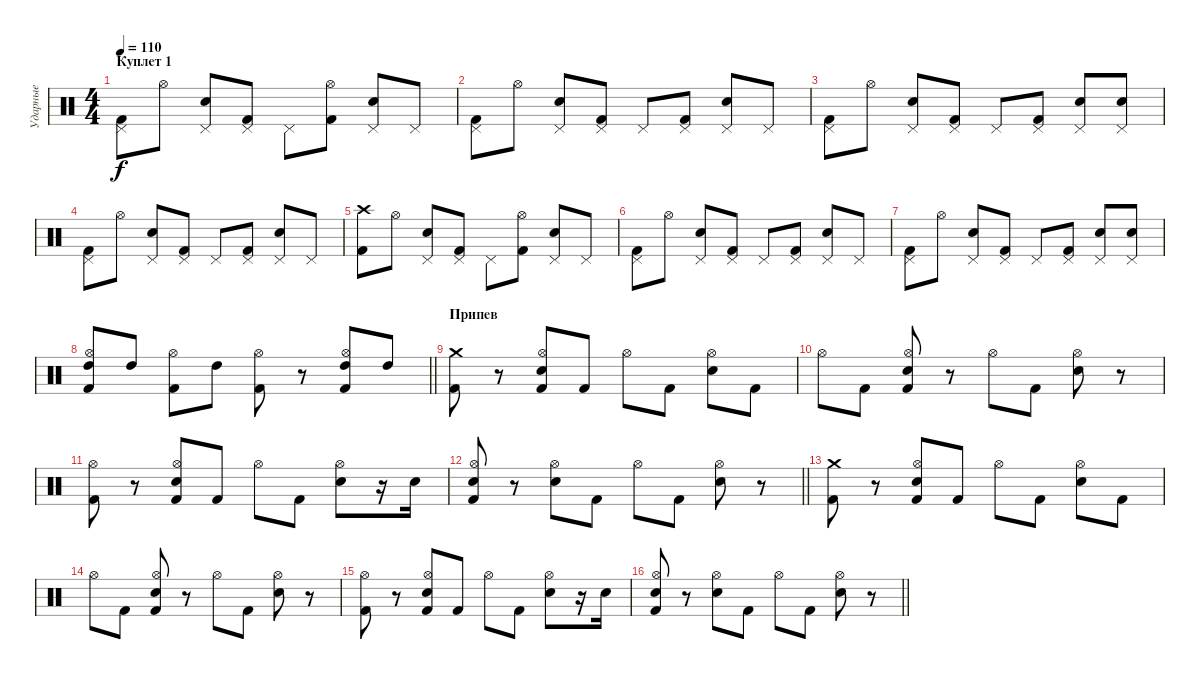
\track ("Ударные" "Ударные") {instrument percussion}
\staff {score}
\articulation defaults
\ts (4 4)
\section ("" "Куплет 1")
\tempo 110
\clef neutral
\ks c
("Pedal Hi-Hat (hit)" "Kick (hit) 2").8{dy f} "Hi-Hat (open)".8 ("Pedal Hi-Hat (hit)" "Electric Snare (hit)").8 ("Pedal Hi-Hat (hit)" "Kick (hit) 2").8 "Pedal Hi-Hat (hit)".8 ("Hi-Hat (open)" "Kick (hit) 2").8 ("Pedal Hi-Hat (hit)" "Electric Snare (hit)").8 "Pedal Hi-Hat (hit)".8 |
("Pedal Hi-Hat (hit)" "Kick (hit) 2").8 "Hi-Hat (open)".8 ("Pedal Hi-Hat (hit)" "Electric Snare (hit)").8 ("Pedal Hi-Hat (hit)" "Kick (hit) 2").8 "Pedal Hi-Hat (hit)".8 ("Pedal Hi-Hat (hit)" "Kick (hit) 2").8 ("Pedal Hi-Hat (hit)" "Electric Snare (hit)").8 "Pedal Hi-Hat (hit)".8 |
("Pedal Hi-Hat (hit)" "Kick (hit) 2").8 "Hi-Hat (open)".8 ("Pedal Hi-Hat (hit)" "Electric Snare (hit)").8 ("Pedal Hi-Hat (hit)" "Kick (hit) 2").8 "Pedal Hi-Hat (hit)".8 ("Pedal Hi-Hat (hit)" "Kick (hit) 2").8 ("Pedal Hi-Hat (hit)" "Electric Snare (hit)").8 ("Pedal Hi-Hat (hit)" "Electric Snare (hit)").8 |
("Pedal Hi-Hat (hit)" "Kick (hit) 2").8 "Hi-Hat (open)".8 ("Pedal Hi-Hat (hit)" "Electric Snare (hit)").8 ("Pedal Hi-Hat (hit)" "Kick (hit) 2").8 "Pedal Hi-Hat (hit)".8 ("Pedal Hi-Hat (hit)" "Kick (hit) 2").8 ("Pedal Hi-Hat (hit)" "Electric Snare (hit)").8 "Pedal Hi-Hat (hit)".8 |
("Crash high (hit)" "Kick (hit) 2").8 "Hi-Hat (open)".8 ("Pedal Hi-Hat (hit)" "Electric Snare (hit)").8 ("Pedal Hi-Hat (hit)" "Kick (hit) 2").8 "Pedal Hi-Hat (hit)".8 ("Hi-Hat (open)" "Kick (hit) 2").8 ("Pedal Hi-Hat (hit)" "Electric Snare (hit)").8 "Pedal Hi-Hat (hit)".8 |
("Pedal Hi-Hat (hit)" "Kick (hit) 2").8 "Hi-Hat (open)".8 ("Pedal Hi-Hat (hit)" "Electric Snare (hit)").8 ("Pedal Hi-Hat (hit)" "Kick (hit) 2").8 "Pedal Hi-Hat (hit)".8 ("Pedal Hi-Hat (hit)" "Kick (hit) 2").8 ("Pedal Hi-Hat (hit)" "Electric Snare (hit)").8 "Pedal Hi-Hat (hit)".8 |
("Pedal Hi-Hat (hit)" "Kick (hit) 2").8 "Hi-Hat (open)".8 ("Pedal Hi-Hat (hit)" "Electric Snare (hit)").8 ("Pedal Hi-Hat (hit)" "Kick (hit) 2").8 "Pedal Hi-Hat (hit)".8 ("Pedal Hi-Hat (hit)" "Kick (hit) 2").8 ("Pedal Hi-Hat (hit)" "Electric Snare (hit)").8 ("Pedal Hi-Hat (hit)" "Electric Snare (hit)").8 |
\barLineRight lightlight
("Hi-Hat (open)" "High Tom (hit)" "Kick (hit) 2").8 "High Tom (hit)".8 ("Hi-Hat (open)" "Kick (hit) 2").8 "High Tom (hit)".8 ("Hi-Hat (open)" "Kick (hit) 2").8 r.8 ("Hi-Hat (open)" "High Tom (hit)" "Kick (hit) 2").8 "High Tom (hit)".8 |
\section ("" "Припев")
("Crash medium (hit)" "Kick (hit) 2").8 r.8 ("Hi-Hat (open)" "Electric Snare (hit)" "Kick (hit) 2").8 "Kick (hit) 2".8 "Hi-Hat (open)".8 "Kick (hit) 2".8 ("Hi-Hat (open)" "Electric Snare (hit)").8 "Kick (hit) 2".8 |
"Hi-Hat (open)".8 "Kick (hit) 2".8 ("Hi-Hat (open)" "Electric Snare (hit)" "Kick (hit) 2").8 r.8 "Hi-Hat (open)".8 "Kick (hit) 2".8 ("Hi-Hat (open)" "Electric Snare (hit)").8 r.8 |
("Hi-Hat (open)" "Kick (hit) 2").8 r.8 ("Hi-Hat (open)" "Electric Snare (hit)" "Kick (hit) 2").8 "Kick (hit) 2".8 "Hi-Hat (open)".8 "Kick (hit) 2".8 ("Hi-Hat (open)" "Electric Snare (hit)").8 r.16 "Electric Snare (hit)".16 |
\barLineRight lightlight
("Hi-Hat (open)" "Electric Snare (hit)" "Kick (hit) 2").8 r.8 ("Hi-Hat (open)" "Electric Snare (hit)").8 "Kick (hit) 2".8 "Hi-Hat (open)".8 "Kick (hit) 2".8 ("Hi-Hat (open)" "Electric Snare (hit)").8 r.8 |
("Crash medium (hit)" "Kick (hit) 2").8 r.8 ("Hi-Hat (open)" "Electric Snare (hit)" "Kick (hit) 2").8 "Kick (hit) 2".8 "Hi-Hat (open)".8 "Kick (hit) 2".8 ("Hi-Hat (open)" "Electric Snare (hit)").8 "Kick (hit) 2".8 |
"Hi-Hat (open)".8 "Kick (hit) 2".8 ("Hi-Hat (open)" "Electric Snare (hit)" "Kick (hit) 2").8 r.8 "Hi-Hat (open)".8 "Kick (hit) 2".8 ("Hi-Hat (open)" "Electric Snare (hit)").8 r.8 |
("Hi-Hat (open)" "Kick (hit) 2").8 r.8 ("Hi-Hat (open)" "Electric Snare (hit)" "Kick (hit) 2").8 "Kick (hit) 2".8 "Hi-Hat (open)".8 "Kick (hit) 2".8 ("Hi-Hat (open)" "Electric Snare (hit)").8 r.16 "Electric Snare (hit)".16 |
\barLineRight lightlight
("Hi-Hat (open)" "Electric Snare (hit)" "Kick (hit) 2").8 r.8 ("Hi-Hat (open)" "Electric Snare (hit)").8 "Kick (hit) 2".8 "Hi-Hat (open)".8 "Kick (hit) 2".8 ("Hi-Hat (open)" "Electric Snare (hit)").8 r.8
